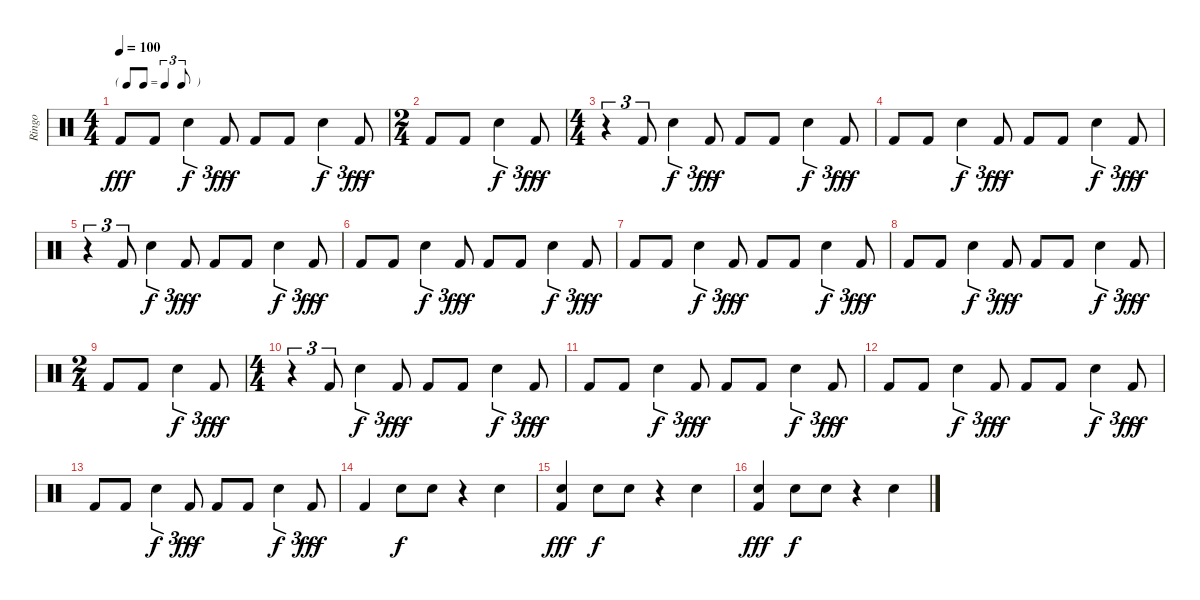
\track ("Ringo" "Ringo") {instrument percussion}
\staff {score}
\articulation defaults
\ts (4 4)
\tf triplet8th
\tempo 100
\clef neutral
\ks c "Kick (hit) 2".8{dy fff} "Kick (hit) 2".8 "Snare (hit) 2".4{tu (3 2) dy f} "Kick (hit) 2".8{tu (3 2) dy fff} "Kick (hit) 2".8 "Kick (hit) 2".8 "Snare (hit) 2".4{tu (3 2) dy f} "Kick (hit) 2".8{tu (3 2) dy fff}
|
\ts (2 4)
"Kick (hit) 2".8 "Kick (hit) 2".8 "Snare (hit) 2".4{tu (3 2) dy f} "Kick (hit) 2".8{tu (3 2) dy fff} |
\ts (4 4)
r.4{tu (3 2)} "Kick (hit) 2".8{tu (3 2)} "Snare (hit) 2".4{tu (3 2) dy f} "Kick (hit) 2".8{tu (3 2) dy fff} "Kick (hit) 2".8 "Kick (hit) 2".8 "Snare (hit) 2".4{tu (3 2) dy f} "Kick (hit) 2".8{tu (3 2) dy fff} |
"Kick (hit) 2".8 "Kick (hit) 2".8 "Snare (hit) 2".4{tu (3 2) dy f} "Kick (hit) 2".8{tu (3 2) dy fff} "Kick (hit) 2".8 "Kick (hit) 2".8 "Snare (hit) 2".4{tu (3 2) dy f} "Kick (hit) 2".8{tu (3 2) dy fff} |
r.4{tu (3 2)} "Kick (hit) 2".8{tu (3 2)} "Snare (hit) 2".4{tu (3 2) dy f} "Kick (hit) 2".8{tu (3 2) dy fff} "Kick (hit) 2".8 "Kick (hit) 2".8 "Snare (hit) 2".4{tu (3 2) dy f} "Kick (hit) 2".8{tu (3 2) dy fff} |
"Kick (hit) 2".8 "Kick (hit) 2".8 "Snare (hit) 2".4{tu (3 2) dy f} "Kick (hit) 2".8{tu (3 2) dy fff} "Kick (hit) 2".8 "Kick (hit) 2".8 "Snare (hit) 2".4{tu (3 2) dy f} "Kick (hit) 2".8{tu (3 2) dy fff} |
"Kick (hit) 2".8 "Kick (hit) 2".8 "Snare (hit) 2".4{tu (3 2) dy f} "Kick (hit) 2".8{tu (3 2) dy fff} "Kick (hit) 2".8 "Kick (hit) 2".8 "Snare (hit) 2".4{tu (3 2) dy f} "Kick (hit) 2".8{tu (3 2) dy fff} |
"Kick (hit) 2".8 "Kick (hit) 2".8 "Snare (hit) 2".4{tu (3 2) dy f} "Kick (hit) 2".8{tu (3 2) dy fff} "Kick (hit) 2".8 "Kick (hit) 2".8 "Snare (hit) 2".4{tu (3 2) dy f} "Kick (hit) 2".8{tu (3 2) dy fff} |
\ts (2 4)
"Kick (hit) 2".8 "Kick (hit) 2".8 "Snare (hit) 2".4{tu (3 2) dy f} "Kick (hit) 2".8{tu (3 2) dy fff} |
\ts (4 4)
r.4{tu (3 2)} "Kick (hit) 2".8{tu (3 2)} "Snare (hit) 2".4{tu (3 2) dy f} "Kick (hit) 2".8{tu (3 2) dy fff} "Kick (hit) 2".8 "Kick (hit) 2".8 "Snare (hit) 2".4{tu (3 2) dy f} "Kick (hit) 2".8{tu (3 2) dy fff} |
"Kick (hit) 2".8 "Kick (hit) 2".8 "Snare (hit) 2".4{tu (3 2) dy f} "Kick (hit) 2".8{tu (3 2) dy fff} "Kick (hit) 2".8 "Kick (hit) 2".8 "Snare (hit) 2".4{tu (3 2) dy f} "Kick (hit) 2".8{tu (3 2) dy fff} |
"Kick (hit) 2".8 "Kick (hit) 2".8 "Snare (hit) 2".4{tu (3 2) dy f} "Kick (hit) 2".8{tu (3 2) dy fff} "Kick (hit) 2".8 "Kick (hit) 2".8 "Snare (hit) 2".4{tu (3 2) dy f} "Kick (hit) 2".8{tu (3 2) dy fff} |
"Kick (hit) 2".8 "Kick (hit) 2".8 "Snare (hit) 2".4{tu (3 2) dy f} "Kick (hit) 2".8{tu (3 2) dy fff} "Kick (hit) 2".8 "Kick (hit) 2".8 "Snare (hit) 2".4{tu (3 2) dy f} "Kick (hit) 2".8{tu (3 2) dy fff} |
"Kick (hit) 2".4 "Snare (hit) 2".8{dy f} "Snare (hit) 2".8 r.4 "Snare (hit) 2".4 |
("Snare (hit) 2" "Kick (hit) 2").4{dy fff} "Snare (hit) 2".8{dy f} "Snare (hit) 2".8 r.4 "Snare (hit) 2".4 |
("Snare (hit) 2" "Kick (hit) 2").4{dy fff} "Snare (hit) 2".8{dy f} "Snare (hit) 2".8 r.4 "Snare (hit) 2".4
